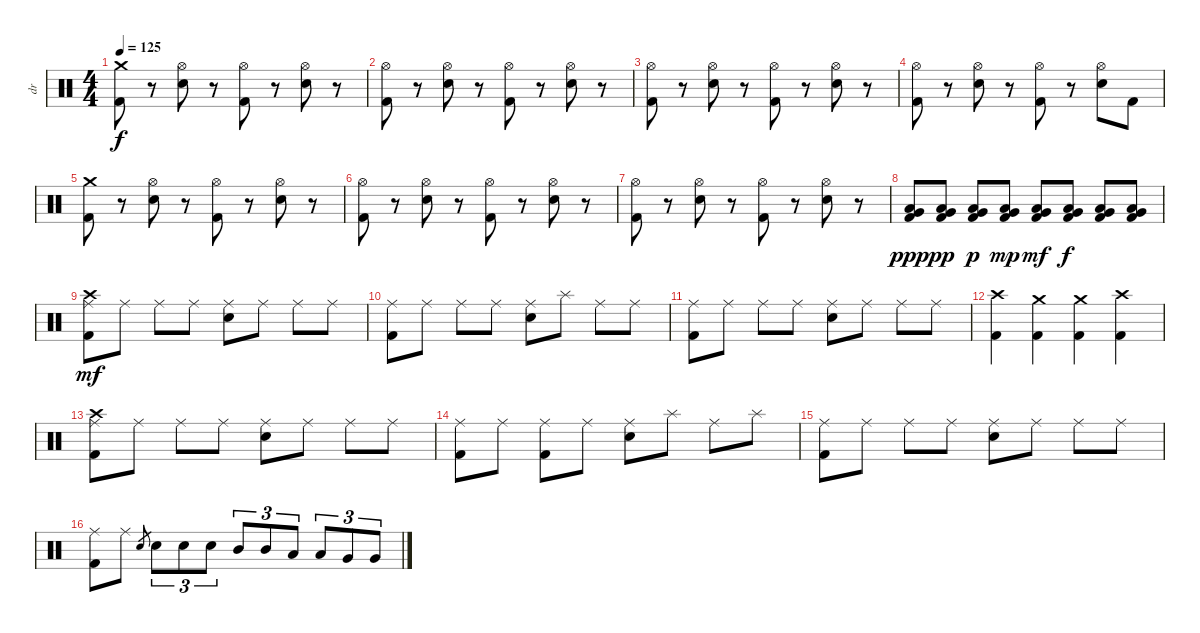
\track ("dr" "dr") {instrument percussion}
\staff {score}
\articulation defaults
\ts (4 4)
\tempo 125
\clef neutral
\ks c
("Crash medium (hit)" "Kick (hit) 2").8{dy f} r.8 ("Hi-Hat (open)" "Snare (hit) 2").8 r.8 ("Hi-Hat (open)" "Kick (hit) 2").8 r.8 ("Hi-Hat (open)" "Snare (hit) 2").8 r.8 |
("Hi-Hat (open)" "Kick (hit) 2").8 r.8 ("Hi-Hat (open)" "Snare (hit) 2").8 r.8 ("Hi-Hat (open)" "Kick (hit) 2").8 r.8 ("Hi-Hat (open)" "Snare (hit) 2").8 r.8 |
("Hi-Hat (open)" "Kick (hit) 2").8 r.8 ("Hi-Hat (open)" "Snare (hit) 2").8 r.8 ("Hi-Hat (open)" "Kick (hit) 2").8 r.8 ("Hi-Hat (open)" "Snare (hit) 2").8 r.8 |
("Hi-Hat (open)" "Kick (hit) 2").8 r.8 ("Hi-Hat (open)" "Snare (hit) 2").8 r.8 ("Hi-Hat (open)" "Kick (hit) 2").8 r.8 ("Hi-Hat (open)" "Snare (hit) 2").8 "Kick (hit) 2".8 |
("Crash medium (hit)" "Kick (hit) 2").8 r.8 ("Hi-Hat (open)" "Snare (hit) 2").8 r.8 ("Hi-Hat (open)" "Kick (hit) 2").8 r.8 ("Hi-Hat (open)" "Snare (hit) 2").8 r.8 |
("Hi-Hat (open)" "Kick (hit) 2").8 r.8 ("Hi-Hat (open)" "Snare (hit) 2").8 r.8 ("Hi-Hat (open)" "Kick (hit) 2").8 r.8 ("Hi-Hat (open)" "Snare (hit) 2").8 r.8 |
("Hi-Hat (open)" "Kick (hit) 2").8 r.8 ("Hi-Hat (open)" "Snare (hit) 2").8 r.8 ("Hi-Hat (open)" "Kick (hit) 2").8 r.8 ("Hi-Hat (open)" "Snare (hit) 2").8 r.8 |
("Very Low Tom (hit)" "Low Floor Tom (hit)" "Kick (hit) 2").8{dy ppp} ("Very Low Tom (hit)" "Low Floor Tom (hit)" "Kick (hit) 2").8{dy pp} ("Very Low Tom (hit)" "Low Floor Tom (hit)" "Kick (hit) 2").8{dy p} ("Very Low Tom (hit)" "Low Floor Tom (hit)" "Kick (hit) 2").8{dy mp} ("Very Low Tom (hit)" "Low Floor Tom (hit)" "Kick (hit) 2").8{dy mf} ("Very Low Tom (hit)" "Low Floor Tom (hit)" "Kick (hit) 2").8{dy f} ("Very Low Tom (hit)" "Low Floor Tom (hit)" "Kick (hit) 2").8 ("Very Low Tom (hit)" "Low Floor Tom (hit)" "Kick (hit) 2").8 |
("Crash high (hit)" "Ride (middle)" "Kick (hit) 2").8{dy mf} "Ride (middle)".8 "Ride (middle)".8 "Ride (middle)".8 ("Ride (middle)" "Snare (hit) 2").8 "Ride (middle)".8 "Ride (middle)".8 "Ride (middle)".8 |
("Ride (middle)" "Kick (hit) 2").8 "Ride (middle)".8 "Ride (middle)".8 "Ride (middle)".8 ("Ride (middle)" "Snare (hit) 2").8 "Splash (hit)".8 "Ride (middle)".8 "Ride (middle)".8 |
("Ride (middle)" "Kick (hit) 2").8 "Ride (middle)".8 "Ride (middle)".8 "Ride (middle)".8 ("Ride (middle)" "Snare (hit) 2").8 "Ride (middle)".8 "Ride (middle)".8 "Ride (middle)".8 |
("Crash high (hit)" "Kick (hit) 2").4 ("Crash medium (hit)" "Kick (hit) 2").4 ("Crash medium (hit)" "Kick (hit) 2").4 ("Crash high (hit)" "Kick (hit) 2").4 |
("Crash high (hit)" "Ride (middle)" "Kick (hit) 2").8 "Ride (middle)".8 "Ride (middle)".8 "Ride (middle)".8 ("Ride (middle)" "Snare (hit) 2").8 "Ride (middle)".8 "Ride (middle)".8 "Ride (middle)".8 |
("Ride (middle)" "Kick (hit) 2").8 "Ride (middle)".8 ("Ride (middle)" "Kick (hit) 2").8 "Ride (middle)".8 ("Ride (middle)" "Snare (hit) 2").8 "Splash (hit)".8 "Ride (middle)".8 "Splash (hit)".8 |
("Ride (middle)" "Kick (hit) 2").8 "Ride (middle)".8 "Ride (middle)".8 "Ride (middle)".8 ("Ride (middle)" "Snare (hit) 2").8 "Ride (middle)".8 "Ride (middle)".8 "Ride (middle)".8 |
("Ride (middle)" "Kick (hit) 2").8 "Ride (middle)".8 "Snare (hit) 2"{h}.8{gr} "Snare (hit) 2".8{tu (3 2)} "Snare (hit) 2".8{tu (3 2)} "Snare (hit) 2".8{tu (3 2)} "Mid Tom (hit)".8{tu (3 2)} "Mid Tom (hit)".8{tu (3 2)} "Low Tom (hit)".8{tu (3 2)} "Low Tom (hit)".8{tu (3 2)} "Very Low Tom (hit)".8{tu (3 2)} "Very Low Tom (hit)".8{tu (3 2)}
